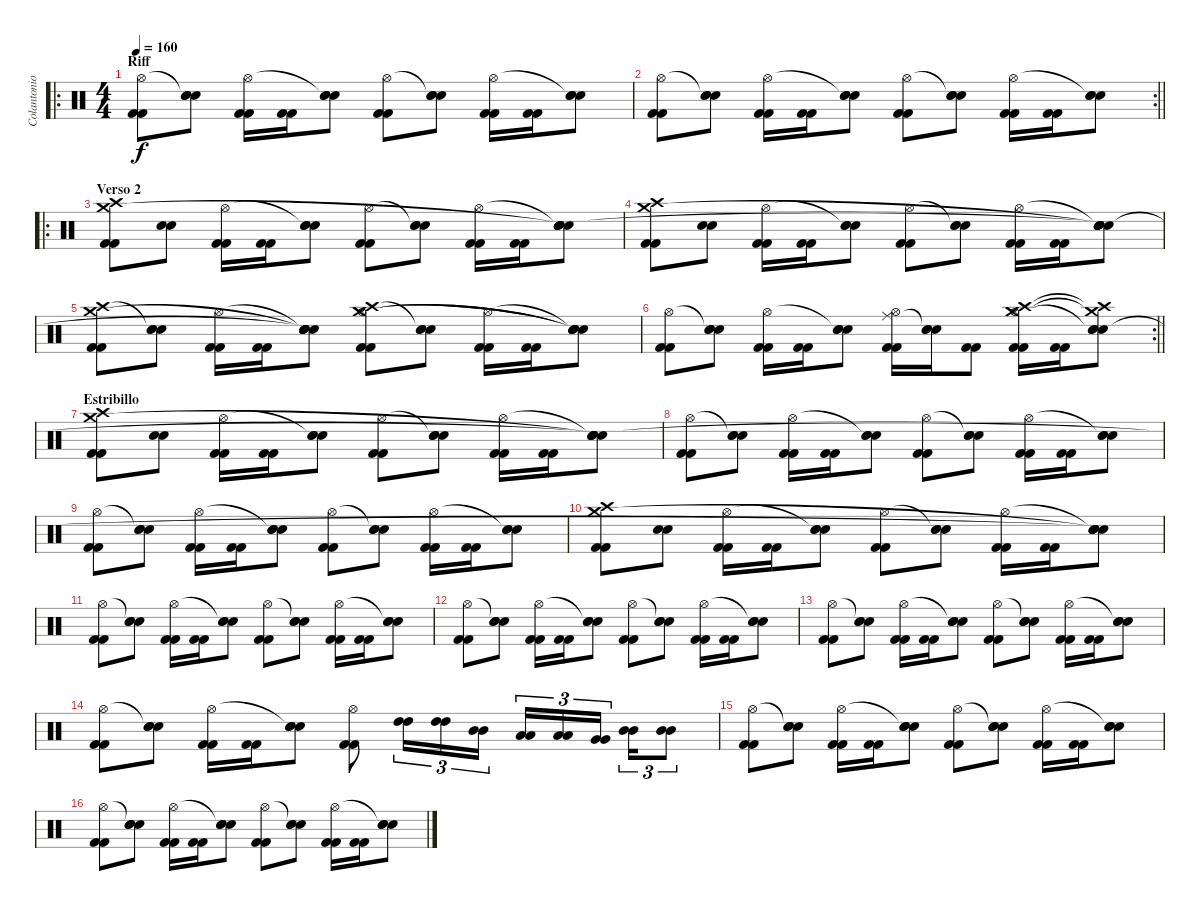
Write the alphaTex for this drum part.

\track ("Colantonio (Bateria)" "Colantonio") {instrument percussion}
\staff {score}
\articulation defaults
\ro
\ts (4 4)
\section ("" "Riff")
\tempo 160
\clef neutral
\ks c
("Kick (hit) 2" "Kick (hit) 2" "Hi-Hat (open)").8{dy f} ("Snare (hit) 2" "Snare (hit) 2" "Snare (hit)"{t}).8 ("Kick (hit) 2" "Kick (hit) 2" "Hi-Hat (open)").16 ("Kick (hit) 2" "Kick (hit) 2").16 ("Snare (hit) 2" "Snare (hit) 2" "Snare (hit)"{t}).8 ("Kick (hit) 2" "Kick (hit) 2" "Hi-Hat (open)").8 ("Snare (hit) 2" "Snare (hit) 2" "Snare (hit)"{t}).8 ("Kick (hit) 2" "Kick (hit) 2" "Hi-Hat (open)").16 ("Kick (hit) 2" "Kick (hit) 2").16 ("Snare (hit) 2" "Snare (hit) 2" "Snare (hit)"{t}).8 |
\rc 2
\barLineRight lightlight
("Kick (hit) 2" "Kick (hit) 2" "Hi-Hat (open)").8 ("Snare (hit) 2" "Snare (hit) 2" "Snare (hit)"{t}).8 ("Kick (hit) 2" "Kick (hit) 2" "Hi-Hat (open)").16 ("Kick (hit) 2" "Kick (hit) 2").16 ("Snare (hit) 2" "Snare (hit) 2" "Snare (hit)"{t}).8 ("Kick (hit) 2" "Kick (hit) 2" "Hi-Hat (open)").8 ("Snare (hit) 2" "Snare (hit) 2" "Snare (hit)"{t}).8 ("Kick (hit) 2" "Kick (hit) 2" "Hi-Hat (open)").16 ("Kick (hit) 2" "Kick (hit) 2").16 ("Snare (hit) 2" "Snare (hit) 2" "Snare (hit)"{t}).8 |
\ro
\section ("" "Verso 2")
("Kick (hit) 2" "Kick (hit) 2" "Crash high (hit)" "Crash medium (hit)").8 ("Snare (hit) 2" "Snare (hit) 2").8 ("Kick (hit) 2" "Kick (hit) 2" "Hi-Hat (open)").16 ("Kick (hit) 2" "Kick (hit) 2").16 ("Snare (hit) 2" "Snare (hit) 2" "Snare (hit)"{t}).8 ("Kick (hit) 2" "Kick (hit) 2" "Hi-Hat (open)").8 ("Snare (hit) 2" "Snare (hit) 2" "Snare (hit)"{t}).8 ("Kick (hit) 2" "Kick (hit) 2" "Hi-Hat (open)").16 ("Kick (hit) 2" "Kick (hit) 2").16 ("Snare (hit) 2" "Snare (hit) 2" "Snare (hit)"{t} "Snare (hit)"{t} "Snare (hit)"{t}).8 |
("Kick (hit) 2" "Kick (hit) 2" "Crash high (hit)" "Crash medium (hit)").8 ("Snare (hit) 2" "Snare (hit) 2").8 ("Kick (hit) 2" "Kick (hit) 2" "Hi-Hat (open)").16 ("Kick (hit) 2" "Kick (hit) 2").16 ("Snare (hit) 2" "Snare (hit) 2" "Snare (hit)"{t}).8 ("Kick (hit) 2" "Kick (hit) 2" "Hi-Hat (open)").8 ("Snare (hit) 2" "Snare (hit) 2" "Snare (hit)"{t}).8 ("Kick (hit) 2" "Kick (hit) 2" "Hi-Hat (open)").16 ("Kick (hit) 2" "Kick (hit) 2").16 ("Snare (hit) 2" "Snare (hit) 2" "Snare (hit)"{t} "Snare (hit)"{t} "Snare (hit)"{t}).8 |
("Kick (hit) 2" "Kick (hit) 2" "Crash high (hit)" "Crash medium (hit)").8 ("Snare (hit) 2" "Snare (hit) 2" "Snare (hit)"{t}).8 ("Kick (hit) 2" "Kick (hit) 2" "Hi-Hat (open)").16 ("Kick (hit) 2" "Kick (hit) 2").16 ("Snare (hit) 2" "Snare (hit) 2" "Snare (hit)"{t} "Snare (hit)"{t} "Snare (hit)"{t}).8 ("Kick (hit) 2" "Kick (hit) 2" "Crash high (hit)" "Hi-Hat (open)" "Crash medium (hit)").8 ("Snare (hit) 2" "Snare (hit) 2" "Snare (hit)"{t}).8 ("Kick (hit) 2" "Kick (hit) 2" "Hi-Hat (open)").16 ("Kick (hit) 2" "Kick (hit) 2").16 ("Snare (hit) 2" "Snare (hit) 2" "Snare (hit)"{t} "Snare (hit)"{t} "Snare (hit)"{t}).8 |
\rc 2
\barLineRight lightlight
("Kick (hit) 2" "Kick (hit) 2" "Hi-Hat (open)").8 ("Snare (hit) 2" "Snare (hit) 2" "Snare (hit)"{t}).8 ("Kick (hit) 2" "Kick (hit) 2" "Hi-Hat (open)").16 ("Kick (hit) 2" "Kick (hit) 2").16 ("Snare (hit) 2" "Snare (hit) 2" "Snare (hit)"{t}).8 ("Kick (hit) 2" "Kick (hit) 2" "Ride (middle)" "Hi-Hat (open)").16 ("Snare (hit) 2" "Snare (hit) 2" "Snare (hit)"{t}).16 ("Kick (hit) 2" "Kick (hit) 2").8 ("Kick (hit) 2" "Kick (hit) 2" "Crash medium (hit)" "Crash high (hit)" "Hi-Hat (open)").16 ("Kick (hit) 2" "Kick (hit) 2").16 ("Snare (hit) 2" "Snare (hit) 2" "Crash medium (hit)"{t} "Crash high (hit)"{t} "Snare (hit)"{t}).8 |
\section ("" "Estribillo")
("Kick (hit) 2" "Kick (hit) 2" "Crash high (hit)" "Crash medium (hit)").8 ("Snare (hit) 2" "Snare (hit) 2").8 ("Kick (hit) 2" "Kick (hit) 2" "Hi-Hat (open)").16 ("Kick (hit) 2" "Kick (hit) 2").16 ("Snare (hit) 2" "Snare (hit) 2" "Snare (hit)"{t}).8 ("Kick (hit) 2" "Kick (hit) 2" "Hi-Hat (open)").8 ("Snare (hit) 2" "Snare (hit) 2" "Snare (hit)"{t}).8 ("Kick (hit) 2" "Kick (hit) 2" "Hi-Hat (open)").16 ("Kick (hit) 2" "Kick (hit) 2").16 ("Snare (hit) 2" "Snare (hit) 2" "Snare (hit)"{t} "Snare (hit)"{t} "Snare (hit)"{t}).8 |
("Kick (hit) 2" "Kick (hit) 2" "Hi-Hat (open)").8 ("Snare (hit) 2" "Snare (hit) 2" "Snare (hit)"{t}).8 ("Kick (hit) 2" "Kick (hit) 2" "Hi-Hat (open)").16 ("Kick (hit) 2" "Kick (hit) 2").16 ("Snare (hit) 2" "Snare (hit) 2" "Snare (hit)"{t}).8 ("Kick (hit) 2" "Kick (hit) 2" "Hi-Hat (open)").8 ("Snare (hit) 2" "Snare (hit) 2" "Snare (hit)"{t}).8 ("Kick (hit) 2" "Kick (hit) 2" "Hi-Hat (open)").16 ("Kick (hit) 2" "Kick (hit) 2").16 ("Snare (hit) 2" "Snare (hit) 2" "Snare (hit)"{t}).8 |
("Kick (hit) 2" "Kick (hit) 2" "Hi-Hat (open)").8 ("Snare (hit) 2" "Snare (hit) 2" "Snare (hit)"{t}).8 ("Kick (hit) 2" "Kick (hit) 2" "Hi-Hat (open)").16 ("Kick (hit) 2" "Kick (hit) 2").16 ("Snare (hit) 2" "Snare (hit) 2" "Snare (hit)"{t}).8 ("Kick (hit) 2" "Kick (hit) 2" "Hi-Hat (open)").8 ("Snare (hit) 2" "Snare (hit) 2" "Snare (hit)"{t}).8 ("Kick (hit) 2" "Kick (hit) 2" "Hi-Hat (open)").16 ("Kick (hit) 2" "Kick (hit) 2").16 ("Snare (hit) 2" "Snare (hit) 2" "Snare (hit)"{t}).8 |
("Kick (hit) 2" "Kick (hit) 2" "Crash high (hit)" "Crash medium (hit)").8 ("Snare (hit) 2" "Snare (hit) 2").8 ("Kick (hit) 2" "Kick (hit) 2" "Hi-Hat (open)").16 ("Kick (hit) 2" "Kick (hit) 2").16 ("Snare (hit) 2" "Snare (hit) 2" "Snare (hit)"{t}).8 ("Kick (hit) 2" "Kick (hit) 2" "Hi-Hat (open)").8 ("Snare (hit) 2" "Snare (hit) 2" "Snare (hit)"{t}).8 ("Kick (hit) 2" "Kick (hit) 2" "Hi-Hat (open)").16 ("Kick (hit) 2" "Kick (hit) 2").16 ("Snare (hit) 2" "Snare (hit) 2" "Snare (hit)"{t} "Snare (hit)"{t} "Snare (hit)"{t}).8 |
("Kick (hit) 2" "Kick (hit) 2" "Hi-Hat (open)").8 ("Snare (hit) 2" "Snare (hit) 2" "Snare (hit)"{t}).8 ("Kick (hit) 2" "Kick (hit) 2" "Hi-Hat (open)").16 ("Kick (hit) 2" "Kick (hit) 2").16 ("Snare (hit) 2" "Snare (hit) 2" "Snare (hit)"{t}).8 ("Kick (hit) 2" "Kick (hit) 2" "Hi-Hat (open)").8 ("Snare (hit) 2" "Snare (hit) 2" "Snare (hit)"{t}).8 ("Kick (hit) 2" "Kick (hit) 2" "Hi-Hat (open)").16 ("Kick (hit) 2" "Kick (hit) 2").16 ("Snare (hit) 2" "Snare (hit) 2" "Snare (hit)"{t}).8 |
("Kick (hit) 2" "Kick (hit) 2" "Hi-Hat (open)").8 ("Snare (hit) 2" "Snare (hit) 2" "Snare (hit)"{t}).8 ("Kick (hit) 2" "Kick (hit) 2" "Hi-Hat (open)").16 ("Kick (hit) 2" "Kick (hit) 2").16 ("Snare (hit) 2" "Snare (hit) 2" "Snare (hit)"{t}).8 ("Kick (hit) 2" "Kick (hit) 2" "Hi-Hat (open)").8 ("Snare (hit) 2" "Snare (hit) 2" "Snare (hit)"{t}).8 ("Kick (hit) 2" "Kick (hit) 2" "Hi-Hat (open)").16 ("Kick (hit) 2" "Kick (hit) 2").16 ("Snare (hit) 2" "Snare (hit) 2" "Snare (hit)"{t}).8 |
("Kick (hit) 2" "Kick (hit) 2" "Hi-Hat (open)").8 ("Snare (hit) 2" "Snare (hit) 2" "Snare (hit)"{t}).8 ("Kick (hit) 2" "Kick (hit) 2" "Hi-Hat (open)").16 ("Kick (hit) 2" "Kick (hit) 2").16 ("Snare (hit) 2" "Snare (hit) 2" "Snare (hit)"{t}).8 ("Kick (hit) 2" "Kick (hit) 2" "Hi-Hat (open)").8 ("Snare (hit) 2" "Snare (hit) 2" "Snare (hit)"{t}).8 ("Kick (hit) 2" "Kick (hit) 2" "Hi-Hat (open)").16 ("Kick (hit) 2" "Kick (hit) 2").16 ("Snare (hit) 2" "Snare (hit) 2" "Snare (hit)"{t}).8 |
("Kick (hit) 2" "Kick (hit) 2" "Hi-Hat (open)").8 ("Snare (hit) 2" "Snare (hit) 2" "Snare (hit)"{t}).8 ("Kick (hit) 2" "Kick (hit) 2" "Hi-Hat (open)").16 ("Kick (hit) 2" "Kick (hit) 2").16 ("Snare (hit) 2" "Snare (hit) 2" "Snare (hit)"{t}).8 ("Kick (hit) 2" "Kick (hit) 2" "Hi-Hat (open)").8 ("High Tom (hit)" "High Tom (hit)").16{tu (3 2)} ("High Tom (hit)" "High Tom (hit)").16{tu (3 2)} ("Mid Tom (hit)" "Mid Tom (hit)").16{tu (3 2)} ("Low Tom (hit)" "Low Tom (hit)").16{tu (3 2)} ("Low Tom (hit)" "Low Tom (hit)").16{tu (3 2)} ("Very Low Tom (hit)" "Very Low Tom (hit)").16{tu (3 2) beam splitsecondary} ("Mid Tom (hit)" "Mid Tom (hit)").16{tu (3 2)} ("Mid Tom (hit)" "Mid Tom (hit)").8{tu (3 2)} |
("Kick (hit) 2" "Kick (hit) 2" "Hi-Hat (open)").8 ("Snare (hit) 2" "Snare (hit) 2" "Snare (hit)"{t}).8 ("Kick (hit) 2" "Kick (hit) 2" "Hi-Hat (open)").16 ("Kick (hit) 2" "Kick (hit) 2").16 ("Snare (hit) 2" "Snare (hit) 2" "Snare (hit)"{t}).8 ("Kick (hit) 2" "Kick (hit) 2" "Hi-Hat (open)").8 ("Snare (hit) 2" "Snare (hit) 2" "Snare (hit)"{t}).8 ("Kick (hit) 2" "Kick (hit) 2" "Hi-Hat (open)").16 ("Kick (hit) 2" "Kick (hit) 2").16 ("Snare (hit) 2" "Snare (hit) 2" "Snare (hit)"{t}).8 |
("Kick (hit) 2" "Kick (hit) 2" "Hi-Hat (open)").8 ("Snare (hit) 2" "Snare (hit) 2" "Snare (hit)"{t}).8 ("Kick (hit) 2" "Kick (hit) 2" "Hi-Hat (open)").16 ("Kick (hit) 2" "Kick (hit) 2").16 ("Snare (hit) 2" "Snare (hit) 2" "Snare (hit)"{t}).8 ("Kick (hit) 2" "Kick (hit) 2" "Hi-Hat (open)").8 ("Snare (hit) 2" "Snare (hit) 2" "Snare (hit)"{t}).8 ("Kick (hit) 2" "Kick (hit) 2" "Hi-Hat (open)").16 ("Kick (hit) 2" "Kick (hit) 2").16 ("Snare (hit) 2" "Snare (hit) 2" "Snare (hit)"{t}).8
